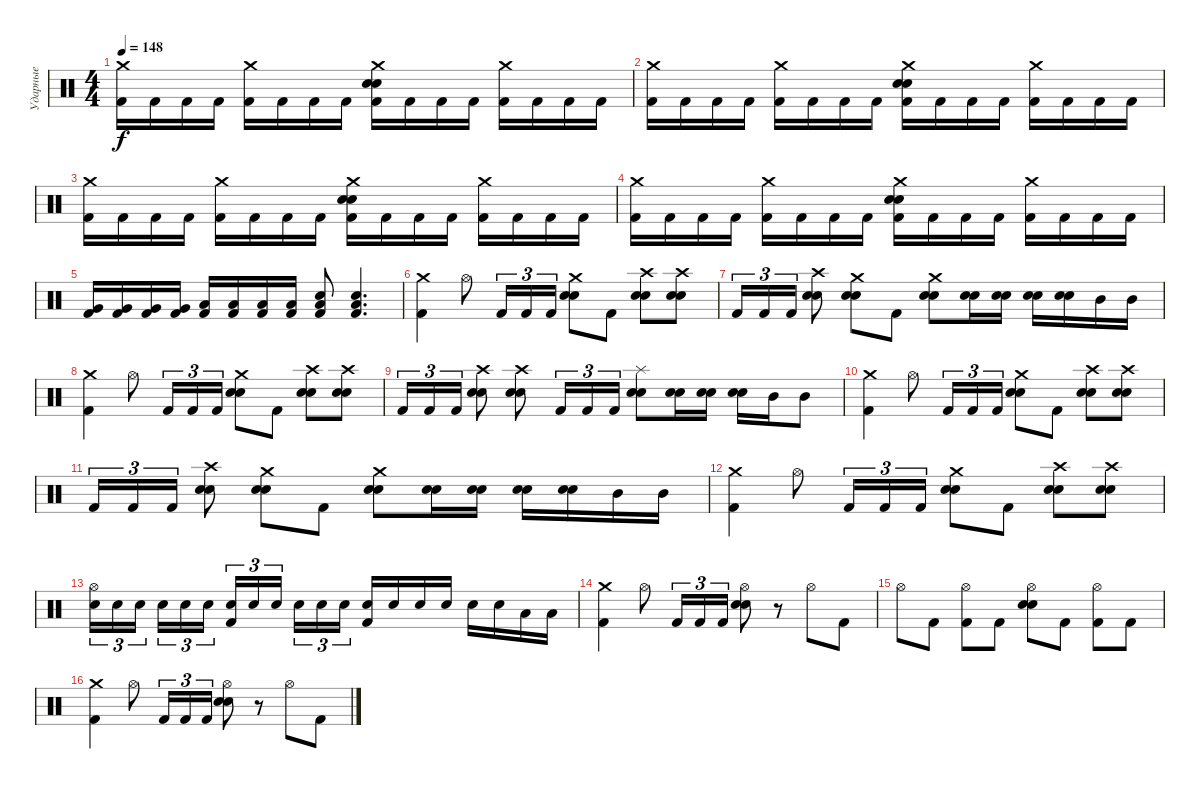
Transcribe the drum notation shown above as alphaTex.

\track ("Ударные" "Ударные") {instrument percussion}
\staff {score}
\articulation defaults
\ts (4 4)
\tempo 148
\clef neutral
\ks c
("Crash medium (hit)" "Kick (hit) 2").16{dy f} "Kick (hit) 2".16 "Kick (hit) 2".16 "Kick (hit) 2".16 ("Crash medium (hit)" "Kick (hit) 2").16 "Kick (hit) 2".16 "Kick (hit) 2".16 "Kick (hit) 2".16 ("Crash medium (hit)" "Electric Snare (hit)" "Snare (hit) 2" "Kick (hit) 2").16 "Kick (hit) 2".16 "Kick (hit) 2".16 "Kick (hit) 2".16 ("Crash medium (hit)" "Kick (hit) 2").16 "Kick (hit) 2".16 "Kick (hit) 2".16 "Kick (hit) 2".16 |
("Crash medium (hit)" "Kick (hit) 2").16 "Kick (hit) 2".16 "Kick (hit) 2".16 "Kick (hit) 2".16 ("Crash medium (hit)" "Kick (hit) 2").16 "Kick (hit) 2".16 "Kick (hit) 2".16 "Kick (hit) 2".16 ("Crash medium (hit)" "Electric Snare (hit)" "Snare (hit) 2" "Kick (hit) 2").16 "Kick (hit) 2".16 "Kick (hit) 2".16 "Kick (hit) 2".16 ("Crash medium (hit)" "Kick (hit) 2").16 "Kick (hit) 2".16 "Kick (hit) 2".16 "Kick (hit) 2".16 |
("Crash medium (hit)" "Kick (hit) 2").16 "Kick (hit) 2".16 "Kick (hit) 2".16 "Kick (hit) 2".16 ("Crash medium (hit)" "Kick (hit) 2").16 "Kick (hit) 2".16 "Kick (hit) 2".16 "Kick (hit) 2".16 ("Crash medium (hit)" "Electric Snare (hit)" "Snare (hit) 2" "Kick (hit) 2").16 "Kick (hit) 2".16 "Kick (hit) 2".16 "Kick (hit) 2".16 ("Crash medium (hit)" "Kick (hit) 2").16 "Kick (hit) 2".16 "Kick (hit) 2".16 "Kick (hit) 2".16 |
("Crash medium (hit)" "Kick (hit) 2").16 "Kick (hit) 2".16 "Kick (hit) 2".16 "Kick (hit) 2".16 ("Crash medium (hit)" "Kick (hit) 2").16 "Kick (hit) 2".16 "Kick (hit) 2".16 "Kick (hit) 2".16 ("Crash medium (hit)" "Electric Snare (hit)" "Snare (hit) 2" "Kick (hit) 2").16 "Kick (hit) 2".16 "Kick (hit) 2".16 "Kick (hit) 2".16 ("Crash medium (hit)" "Kick (hit) 2").16 "Kick (hit) 2".16 "Kick (hit) 2".16 "Kick (hit) 2".16 |
("Very Low Tom (hit)" "Kick (hit) 2").16 ("Very Low Tom (hit)" "Kick (hit) 2").16 ("Very Low Tom (hit)" "Kick (hit) 2").16 ("Very Low Tom (hit)" "Kick (hit) 2").16 ("Low Floor Tom (hit)" "Kick (hit) 2").16 ("Low Floor Tom (hit)" "Kick (hit) 2").16 ("Low Floor Tom (hit)" "Kick (hit) 2").16 ("Low Floor Tom (hit)" "Kick (hit) 2").16 ("Electric Snare (hit)" "Low Floor Tom (hit)" "Kick (hit) 2").8 ("Electric Snare (hit)" "Low Floor Tom (hit)" "Kick (hit) 2").4{d} |
("Crash medium (hit)" "Kick (hit) 2").4 "Hi-Hat (open)".8 "Kick (hit) 2".16{tu (3 2)} "Kick (hit) 2".16{tu (3 2)} "Kick (hit) 2".16{tu (3 2)} ("Crash medium (hit)" "Electric Snare (hit)" "Snare (hit) 2").8 "Kick (hit) 2".8 ("Crash high (hit)" "Electric Snare (hit)" "Snare (hit) 2").8 ("Crash high (hit)" "Electric Snare (hit)" "Snare (hit) 2").8 |
"Kick (hit) 2".16{tu (3 2)} "Kick (hit) 2".16{tu (3 2)} "Kick (hit) 2".16{tu (3 2)} ("Crash high (hit)" "Electric Snare (hit)" "Snare (hit) 2").8 ("Crash medium (hit)" "Electric Snare (hit)" "Snare (hit) 2").8 "Kick (hit) 2".8 ("Crash medium (hit)" "Electric Snare (hit)" "Snare (hit) 2").8 ("Electric Snare (hit)" "Snare (hit) 2").16 ("Electric Snare (hit)" "Snare (hit) 2").16 ("Electric Snare (hit)" "Snare (hit) 2").16 ("Electric Snare (hit)" "Snare (hit) 2").16 "Mid Tom (hit)".16 "Mid Tom (hit)".16 |
("Crash medium (hit)" "Kick (hit) 2").4 "Hi-Hat (open)".8 "Kick (hit) 2".16{tu (3 2)} "Kick (hit) 2".16{tu (3 2)} "Kick (hit) 2".16{tu (3 2)} ("Crash medium (hit)" "Electric Snare (hit)" "Snare (hit) 2").8 "Kick (hit) 2".8 ("Crash high (hit)" "Electric Snare (hit)" "Snare (hit) 2").8 ("Crash high (hit)" "Electric Snare (hit)" "Snare (hit) 2").8 |
"Kick (hit) 2".16{tu (3 2)} "Kick (hit) 2".16{tu (3 2)} "Kick (hit) 2".16{tu (3 2)} ("Crash high (hit)" "Electric Snare (hit)" "Snare (hit) 2").8 ("Crash high (hit)" "Electric Snare (hit)" "Snare (hit) 2").8 "Kick (hit) 2".16{tu (3 2)} "Kick (hit) 2".16{tu (3 2)} "Kick (hit) 2".16{tu (3 2)} ("Splash (hit)" "Electric Snare (hit)" "Snare (hit) 2").8 ("Electric Snare (hit)" "Snare (hit) 2").16 ("Electric Snare (hit)" "Snare (hit) 2").16 ("Electric Snare (hit)" "Snare (hit) 2").16 "Mid Tom (hit)".16 "Mid Tom (hit)".8 |
("Crash medium (hit)" "Kick (hit) 2").4 "Hi-Hat (open)".8 "Kick (hit) 2".16{tu (3 2)} "Kick (hit) 2".16{tu (3 2)} "Kick (hit) 2".16{tu (3 2)} ("Crash medium (hit)" "Electric Snare (hit)" "Snare (hit) 2").8 "Kick (hit) 2".8 ("Crash high (hit)" "Electric Snare (hit)" "Snare (hit) 2").8 ("Crash high (hit)" "Electric Snare (hit)" "Snare (hit) 2").8 |
"Kick (hit) 2".16{tu (3 2)} "Kick (hit) 2".16{tu (3 2)} "Kick (hit) 2".16{tu (3 2)} ("Crash high (hit)" "Electric Snare (hit)" "Snare (hit) 2").8 ("Crash medium (hit)" "Electric Snare (hit)" "Snare (hit) 2").8 "Kick (hit) 2".8 ("Crash medium (hit)" "Electric Snare (hit)" "Snare (hit) 2").8 ("Electric Snare (hit)" "Snare (hit) 2").16 ("Electric Snare (hit)" "Snare (hit) 2").16 ("Electric Snare (hit)" "Snare (hit) 2").16 ("Electric Snare (hit)" "Snare (hit) 2").16 "Mid Tom (hit)".16 "Mid Tom (hit)".16 |
("Crash medium (hit)" "Kick (hit) 2").4 "Hi-Hat (open)".8 "Kick (hit) 2".16{tu (3 2)} "Kick (hit) 2".16{tu (3 2)} "Kick (hit) 2".16{tu (3 2)} ("Crash medium (hit)" "Electric Snare (hit)" "Snare (hit) 2").8 "Kick (hit) 2".8 ("Crash high (hit)" "Electric Snare (hit)" "Snare (hit) 2").8 ("Crash high (hit)" "Electric Snare (hit)" "Snare (hit) 2").8 |
("Hi-Hat (open)" "Electric Snare (hit)").16{tu (3 2)} "Electric Snare (hit)".16{tu (3 2)} "Electric Snare (hit)".16{tu (3 2) beam splitsecondary} "Electric Snare (hit)".16{tu (3 2)} "Electric Snare (hit)".16{tu (3 2)} "Electric Snare (hit)".16{tu (3 2)} ("Electric Snare (hit)" "Kick (hit) 2").16{tu (3 2)} "Electric Snare (hit)".16{tu (3 2)} "Electric Snare (hit)".16{tu (3 2) beam splitsecondary} "Electric Snare (hit)".16{tu (3 2)} "Electric Snare (hit)".16{tu (3 2)} "Electric Snare (hit)".16{tu (3 2)} ("Electric Snare (hit)" "Kick (hit) 2").16 "Electric Snare (hit)".16 "Electric Snare (hit)".16 "Electric Snare (hit)".16 "Electric Snare (hit)".16 "Electric Snare (hit)".16 "Low Tom (hit)".16 "Low Tom (hit)".16 |
("Crash medium (hit)" "Kick (hit) 2").4 "Hi-Hat (open)".8 "Kick (hit) 2".16{tu (3 2)} "Kick (hit) 2".16{tu (3 2)} "Kick (hit) 2".16{tu (3 2)} ("Hi-Hat (open)" "Electric Snare (hit)" "Snare (hit) 2").8 r.8 "Hi-Hat (open)".8 "Kick (hit) 2".8 |
"Hi-Hat (open)".8 "Kick (hit) 2".8 ("Hi-Hat (open)" "Kick (hit) 2").8 "Kick (hit) 2".8 ("Hi-Hat (open)" "Electric Snare (hit)" "Snare (hit) 2").8 "Kick (hit) 2".8 ("Hi-Hat (open)" "Kick (hit) 2").8 "Kick (hit) 2".8 |
("Crash medium (hit)" "Kick (hit) 2").4 "Hi-Hat (open)".8 "Kick (hit) 2".16{tu (3 2)} "Kick (hit) 2".16{tu (3 2)} "Kick (hit) 2".16{tu (3 2)} ("Hi-Hat (open)" "Electric Snare (hit)" "Snare (hit) 2").8 r.8 "Hi-Hat (open)".8 "Kick (hit) 2".8
